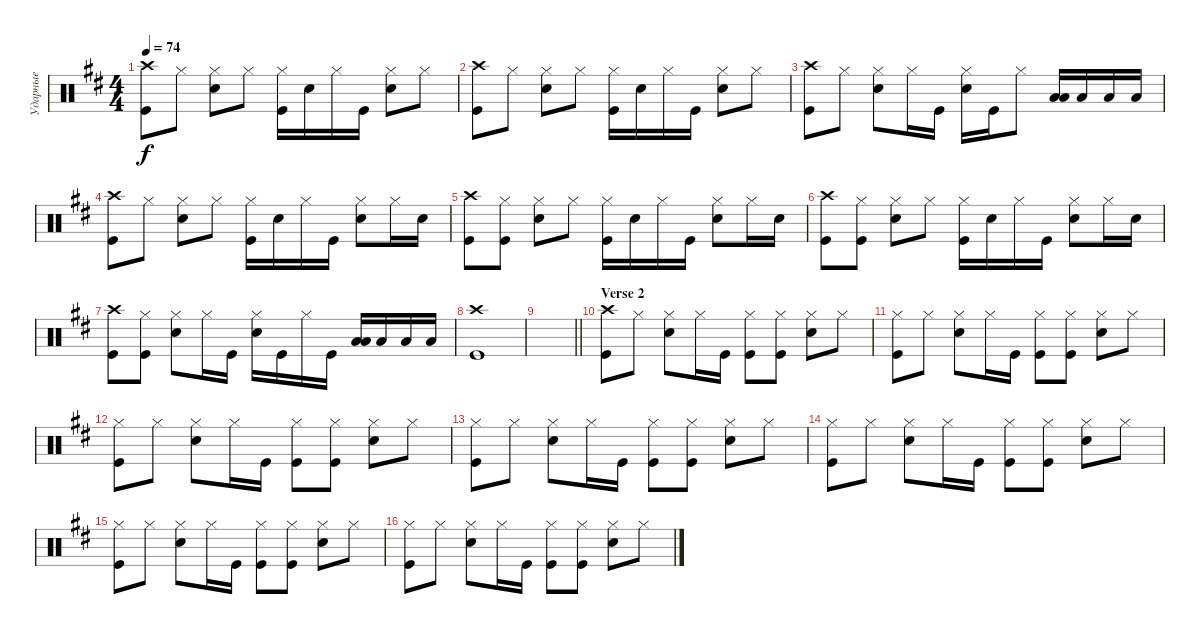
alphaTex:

\track ("Ударные" "Ударные") {instrument percussion}
\staff {score}
\articulation defaults
\ts (4 4)
\tempo 74
\clef neutral
\ks bminor
("Kick (hit)" "Crash high (hit)").8{dy f} "Hi-Hat (closed)".8 ("Snare (hit) 2" "Hi-Hat (closed)").8 "Hi-Hat (closed)".8 ("Hi-Hat (closed)" "Kick (hit)").16 "Snare (hit) 2".16 "Hi-Hat (closed)".16 "Kick (hit)".16 ("Hi-Hat (closed)" "Snare (hit) 2").8 "Hi-Hat (closed)".8 |
("Kick (hit)" "Crash high (hit)").8 "Hi-Hat (closed)".8 ("Snare (hit) 2" "Hi-Hat (closed)").8 "Hi-Hat (closed)".8 ("Hi-Hat (closed)" "Kick (hit)").16 "Snare (hit) 2".16 "Hi-Hat (closed)".16 "Kick (hit)".16 ("Hi-Hat (closed)" "Snare (hit) 2").8 "Hi-Hat (closed)".8 |
("Kick (hit)" "Crash high (hit)").8 "Hi-Hat (closed)".8 ("Snare (hit) 2" "Hi-Hat (closed)").8 "Hi-Hat (closed)".16 "Kick (hit)".16 ("Snare (hit) 2" "Hi-Hat (closed)").16 "Kick (hit)".16 "Hi-Hat (closed)".8 ("Low Tom (hit)" "Low Tom (hit)").16{bd 240} "Low Floor Tom (hit)".16 "Low Tom (hit)".16 "Low Tom (hit)".16 |
("Kick (hit)" "Crash high (hit)").8 "Hi-Hat (closed)".8 ("Snare (hit) 2" "Hi-Hat (closed)").8 "Hi-Hat (closed)".8 ("Hi-Hat (closed)" "Kick (hit)").16 "Snare (hit) 2".16 "Hi-Hat (closed)".16 "Kick (hit)".16 ("Hi-Hat (closed)" "Snare (hit) 2").8 "Hi-Hat (closed)".16 "Snare (hit) 2".16 |
("Kick (hit)" "Crash high (hit)").8 ("Hi-Hat (closed)" "Kick (hit)").8 ("Snare (hit) 2" "Hi-Hat (closed)").8 "Hi-Hat (closed)".8 ("Hi-Hat (closed)" "Kick (hit)").16 "Snare (hit) 2".16 "Hi-Hat (closed)".16 "Kick (hit)".16 ("Hi-Hat (closed)" "Snare (hit) 2").8 "Hi-Hat (closed)".16 "Snare (hit) 2".16 |
("Kick (hit)" "Crash high (hit)").8 ("Hi-Hat (closed)" "Kick (hit)").8 ("Snare (hit) 2" "Hi-Hat (closed)").8 "Hi-Hat (closed)".8 ("Hi-Hat (closed)" "Kick (hit)").16 "Snare (hit) 2".16 "Hi-Hat (closed)".16 "Kick (hit)".16 ("Hi-Hat (closed)" "Snare (hit) 2").8 "Hi-Hat (closed)".16 "Snare (hit) 2".16 |
("Kick (hit)" "Crash high (hit)").8 ("Hi-Hat (closed)" "Kick (hit)").8 ("Snare (hit) 2" "Hi-Hat (closed)").8 "Hi-Hat (closed)".16 "Kick (hit)".16 ("Snare (hit) 2" "Hi-Hat (closed)").16 "Kick (hit)".16 "Hi-Hat (closed)".16 "Kick (hit)".16 ("Low Tom (hit)" "Low Tom (hit)").16{bd 240} "Low Floor Tom (hit)".16 "Low Tom (hit)".16 "Low Tom (hit)".16 |
("Kick (hit)" "Crash high (hit)").1 |
\barLineRight lightlight
|
\section ("" "Verse 2")
("Kick (hit)" "Crash high (hit)").8 "Hi-Hat (closed)".8 ("Hi-Hat (closed)" "Snare (hit) 2").8 "Hi-Hat (closed)".16 "Kick (hit)".16 ("Kick (hit)" "Hi-Hat (closed)").8 ("Kick (hit)" "Hi-Hat (closed)").8 ("Snare (hit) 2" "Hi-Hat (closed)").8 "Hi-Hat (closed)".8 |
("Kick (hit)" "Hi-Hat (closed)").8 "Hi-Hat (closed)".8 ("Hi-Hat (closed)" "Snare (hit) 2").8 "Hi-Hat (closed)".16 "Kick (hit)".16 ("Kick (hit)" "Hi-Hat (closed)").8 ("Kick (hit)" "Hi-Hat (closed)").8 ("Snare (hit) 2" "Hi-Hat (closed)").8 "Hi-Hat (closed)".8 |
("Kick (hit)" "Hi-Hat (closed)").8 "Hi-Hat (closed)".8 ("Hi-Hat (closed)" "Snare (hit) 2").8 "Hi-Hat (closed)".16 "Kick (hit)".16 ("Kick (hit)" "Hi-Hat (closed)").8 ("Kick (hit)" "Hi-Hat (closed)").8 ("Snare (hit) 2" "Hi-Hat (closed)").8 "Hi-Hat (closed)".8 |
("Kick (hit)" "Hi-Hat (closed)").8 "Hi-Hat (closed)".8 ("Hi-Hat (closed)" "Snare (hit) 2").8 "Hi-Hat (closed)".16 "Kick (hit)".16 ("Kick (hit)" "Hi-Hat (closed)").8 ("Kick (hit)" "Hi-Hat (closed)").8 ("Snare (hit) 2" "Hi-Hat (closed)").8 "Hi-Hat (closed)".8 |
("Kick (hit)" "Hi-Hat (closed)").8 "Hi-Hat (closed)".8 ("Hi-Hat (closed)" "Snare (hit) 2").8 "Hi-Hat (closed)".16 "Kick (hit)".16 ("Kick (hit)" "Hi-Hat (closed)").8 ("Kick (hit)" "Hi-Hat (closed)").8 ("Snare (hit) 2" "Hi-Hat (closed)").8 "Hi-Hat (closed)".8 |
("Kick (hit)" "Hi-Hat (closed)").8 "Hi-Hat (closed)".8 ("Hi-Hat (closed)" "Snare (hit) 2").8 "Hi-Hat (closed)".16 "Kick (hit)".16 ("Kick (hit)" "Hi-Hat (closed)").8 ("Kick (hit)" "Hi-Hat (closed)").8 ("Snare (hit) 2" "Hi-Hat (closed)").8 "Hi-Hat (closed)".8 |
("Kick (hit)" "Hi-Hat (closed)").8 "Hi-Hat (closed)".8 ("Hi-Hat (closed)" "Snare (hit) 2").8 "Hi-Hat (closed)".16 "Kick (hit)".16 ("Kick (hit)" "Hi-Hat (closed)").8 ("Kick (hit)" "Hi-Hat (closed)").8 ("Snare (hit) 2" "Hi-Hat (closed)").8 "Hi-Hat (closed)".8
